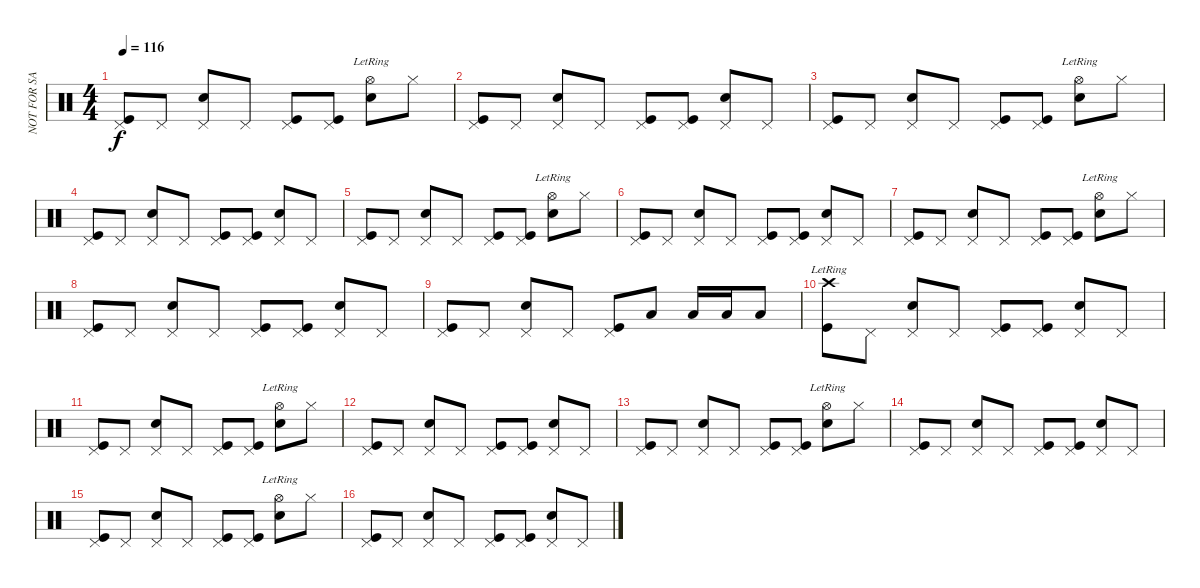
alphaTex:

\track ("NOT FOR SALE OR PROFIT" "NOT FOR SA") {instrument percussion}
\staff {score}
\articulation defaults
\ts (4 4)
\tempo 116
\clef neutral
\ks c
("Pedal Hi-Hat (hit)" "Kick (hit)").8{dy f} "Pedal Hi-Hat (hit)".8 ("Pedal Hi-Hat (hit)" "Snare (hit) 2").8 "Pedal Hi-Hat (hit)".8 ("Pedal Hi-Hat (hit)" "Kick (hit)").8 ("Pedal Hi-Hat (hit)" "Kick (hit)").8 ("Hi-Hat (open)"{lr} "Snare (hit) 2").8 "Hi-Hat (closed)".8 |
("Pedal Hi-Hat (hit)" "Kick (hit)").8 "Pedal Hi-Hat (hit)".8 ("Pedal Hi-Hat (hit)" "Snare (hit) 2").8 "Pedal Hi-Hat (hit)".8 ("Pedal Hi-Hat (hit)" "Kick (hit)").8 ("Pedal Hi-Hat (hit)" "Kick (hit)").8 ("Pedal Hi-Hat (hit)" "Snare (hit) 2").8 "Pedal Hi-Hat (hit)".8 |
("Pedal Hi-Hat (hit)" "Kick (hit)").8 "Pedal Hi-Hat (hit)".8 ("Pedal Hi-Hat (hit)" "Snare (hit) 2").8 "Pedal Hi-Hat (hit)".8 ("Pedal Hi-Hat (hit)" "Kick (hit)").8 ("Pedal Hi-Hat (hit)" "Kick (hit)").8 ("Hi-Hat (open)"{lr} "Snare (hit) 2").8 "Hi-Hat (closed)".8 |
("Pedal Hi-Hat (hit)" "Kick (hit)").8 "Pedal Hi-Hat (hit)".8 ("Pedal Hi-Hat (hit)" "Snare (hit) 2").8 "Pedal Hi-Hat (hit)".8 ("Pedal Hi-Hat (hit)" "Kick (hit)").8 ("Pedal Hi-Hat (hit)" "Kick (hit)").8 ("Pedal Hi-Hat (hit)" "Snare (hit) 2").8 "Pedal Hi-Hat (hit)".8 |
("Pedal Hi-Hat (hit)" "Kick (hit)").8 "Pedal Hi-Hat (hit)".8 ("Pedal Hi-Hat (hit)" "Snare (hit) 2").8 "Pedal Hi-Hat (hit)".8 ("Pedal Hi-Hat (hit)" "Kick (hit)").8 ("Pedal Hi-Hat (hit)" "Kick (hit)").8 ("Hi-Hat (open)"{lr} "Snare (hit) 2").8 "Hi-Hat (closed)".8 |
("Pedal Hi-Hat (hit)" "Kick (hit)").8 "Pedal Hi-Hat (hit)".8 ("Pedal Hi-Hat (hit)" "Snare (hit) 2").8 "Pedal Hi-Hat (hit)".8 ("Pedal Hi-Hat (hit)" "Kick (hit)").8 ("Pedal Hi-Hat (hit)" "Kick (hit)").8 ("Pedal Hi-Hat (hit)" "Snare (hit) 2").8 "Pedal Hi-Hat (hit)".8 |
("Pedal Hi-Hat (hit)" "Kick (hit)").8 "Pedal Hi-Hat (hit)".8 ("Pedal Hi-Hat (hit)" "Snare (hit) 2").8 "Pedal Hi-Hat (hit)".8 ("Pedal Hi-Hat (hit)" "Kick (hit)").8 ("Pedal Hi-Hat (hit)" "Kick (hit)").8 ("Hi-Hat (open)"{lr} "Snare (hit) 2").8 "Hi-Hat (closed)".8 |
("Pedal Hi-Hat (hit)" "Kick (hit)").8 "Pedal Hi-Hat (hit)".8 ("Pedal Hi-Hat (hit)" "Snare (hit) 2").8 "Pedal Hi-Hat (hit)".8 ("Pedal Hi-Hat (hit)" "Kick (hit)").8 ("Pedal Hi-Hat (hit)" "Kick (hit)").8 ("Pedal Hi-Hat (hit)" "Snare (hit) 2").8 "Pedal Hi-Hat (hit)".8 |
("Pedal Hi-Hat (hit)" "Kick (hit)").8 "Pedal Hi-Hat (hit)".8 ("Pedal Hi-Hat (hit)" "Snare (hit) 2").8 "Pedal Hi-Hat (hit)".8 ("Pedal Hi-Hat (hit)" "Kick (hit)").8 "Low Tom (hit)".8 "Low Tom (hit)".16 "Low Tom (hit)".16 "Low Tom (hit)".8 |
("Crash high (hit)"{lr} "Kick (hit)").8 "Pedal Hi-Hat (hit)".8 ("Pedal Hi-Hat (hit)" "Snare (hit) 2").8 "Pedal Hi-Hat (hit)".8 ("Pedal Hi-Hat (hit)" "Kick (hit)").8 ("Pedal Hi-Hat (hit)" "Kick (hit)").8 ("Pedal Hi-Hat (hit)" "Snare (hit) 2").8 "Pedal Hi-Hat (hit)".8 |
("Pedal Hi-Hat (hit)" "Kick (hit)").8 "Pedal Hi-Hat (hit)".8 ("Pedal Hi-Hat (hit)" "Snare (hit) 2").8 "Pedal Hi-Hat (hit)".8 ("Pedal Hi-Hat (hit)" "Kick (hit)").8 ("Pedal Hi-Hat (hit)" "Kick (hit)").8 ("Hi-Hat (open)"{lr} "Snare (hit) 2").8 "Hi-Hat (closed)".8 |
("Pedal Hi-Hat (hit)" "Kick (hit)").8 "Pedal Hi-Hat (hit)".8 ("Pedal Hi-Hat (hit)" "Snare (hit) 2").8 "Pedal Hi-Hat (hit)".8 ("Pedal Hi-Hat (hit)" "Kick (hit)").8 ("Pedal Hi-Hat (hit)" "Kick (hit)").8 ("Pedal Hi-Hat (hit)" "Snare (hit) 2").8 "Pedal Hi-Hat (hit)".8 |
("Pedal Hi-Hat (hit)" "Kick (hit)").8 "Pedal Hi-Hat (hit)".8 ("Pedal Hi-Hat (hit)" "Snare (hit) 2").8 "Pedal Hi-Hat (hit)".8 ("Pedal Hi-Hat (hit)" "Kick (hit)").8 ("Pedal Hi-Hat (hit)" "Kick (hit)").8 ("Hi-Hat (open)"{lr} "Snare (hit) 2").8 "Hi-Hat (closed)".8 |
("Pedal Hi-Hat (hit)" "Kick (hit)").8 "Pedal Hi-Hat (hit)".8 ("Pedal Hi-Hat (hit)" "Snare (hit) 2").8 "Pedal Hi-Hat (hit)".8 ("Pedal Hi-Hat (hit)" "Kick (hit)").8 ("Pedal Hi-Hat (hit)" "Kick (hit)").8 ("Pedal Hi-Hat (hit)" "Snare (hit) 2").8 "Pedal Hi-Hat (hit)".8 |
("Pedal Hi-Hat (hit)" "Kick (hit)").8 "Pedal Hi-Hat (hit)".8 ("Pedal Hi-Hat (hit)" "Snare (hit) 2").8 "Pedal Hi-Hat (hit)".8 ("Pedal Hi-Hat (hit)" "Kick (hit)").8 ("Pedal Hi-Hat (hit)" "Kick (hit)").8 ("Hi-Hat (open)"{lr} "Snare (hit) 2").8 "Hi-Hat (closed)".8 |
("Pedal Hi-Hat (hit)" "Kick (hit)").8 "Pedal Hi-Hat (hit)".8 ("Pedal Hi-Hat (hit)" "Snare (hit) 2").8 "Pedal Hi-Hat (hit)".8 ("Pedal Hi-Hat (hit)" "Kick (hit)").8 ("Pedal Hi-Hat (hit)" "Kick (hit)").8 ("Pedal Hi-Hat (hit)" "Snare (hit) 2").8 "Pedal Hi-Hat (hit)".8
